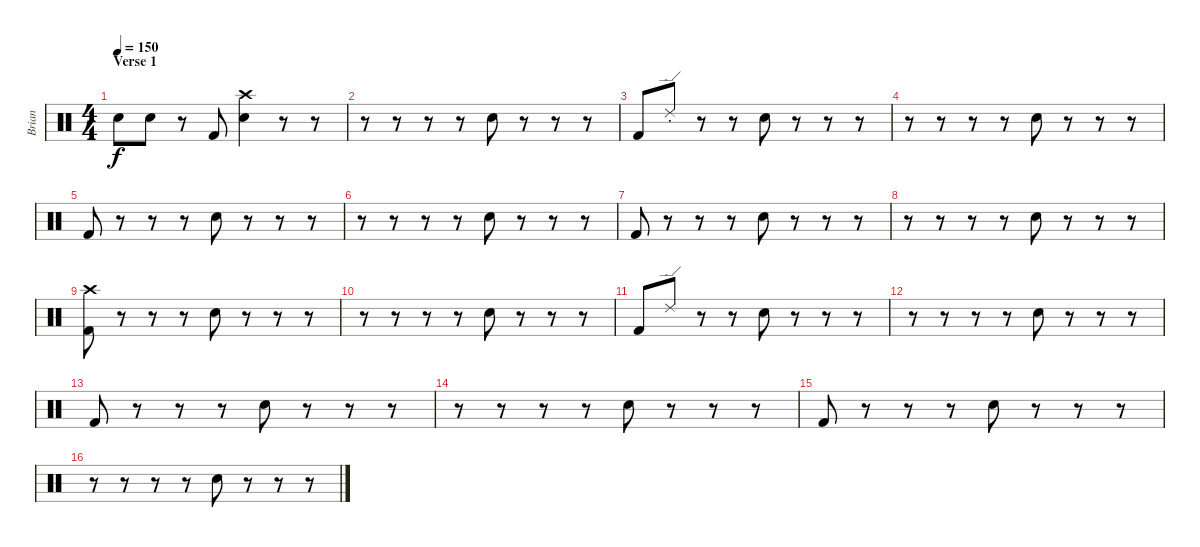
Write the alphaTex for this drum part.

\track ("Brian" "Brian") {instrument percussion}
\staff {score}
\articulation defaults
\ts (4 4)
\section ("" "Verse 1")
\tempo 150
\clef neutral
\ks c "Snare (hit) 2".8{dy f} "Snare (hit) 2".8
r.8 "Kick (hit) 2".8 ("Crash high (hit)" "Snare (hit) 2").4 r.8 r.8 |
r.8 r.8 r.8 r.8 "Snare (hit) 2".8 r.8 r.8 r.8 |
"Kick (hit) 2".8 "Ride (edge) 2"{st}.8 r.8 r.8 "Snare (hit) 2".8 r.8 r.8 r.8 |
r.8 r.8 r.8 r.8 "Snare (hit) 2".8 r.8 r.8 r.8 |
"Kick (hit) 2".8 r.8 r.8 r.8 "Snare (hit) 2".8 r.8 r.8 r.8 |
r.8 r.8 r.8 r.8 "Snare (hit) 2".8 r.8 r.8 r.8 |
"Kick (hit) 2".8 r.8 r.8 r.8 "Snare (hit) 2".8 r.8 r.8 r.8 |
r.8 r.8 r.8 r.8 "Snare (hit) 2".8 r.8 r.8 r.8 |
("Crash high (hit)" "Kick (hit) 2").8 r.8 r.8 r.8 "Snare (hit) 2".8 r.8 r.8 r.8 |
r.8 r.8 r.8 r.8 "Snare (hit) 2".8 r.8 r.8 r.8 |
"Kick (hit) 2".8 "Ride (edge) 2".8 r.8 r.8 "Snare (hit) 2".8 r.8 r.8 r.8 |
r.8 r.8 r.8 r.8 "Snare (hit) 2".8 r.8 r.8 r.8 |
"Kick (hit) 2".8 r.8 r.8 r.8 "Snare (hit) 2".8 r.8 r.8 r.8 |
r.8 r.8 r.8 r.8 "Snare (hit) 2".8 r.8 r.8 r.8 |
"Kick (hit) 2".8 r.8 r.8 r.8 "Snare (hit) 2".8 r.8 r.8 r.8 |
r.8 r.8 r.8 r.8 "Snare (hit) 2".8 r.8 r.8 r.8
